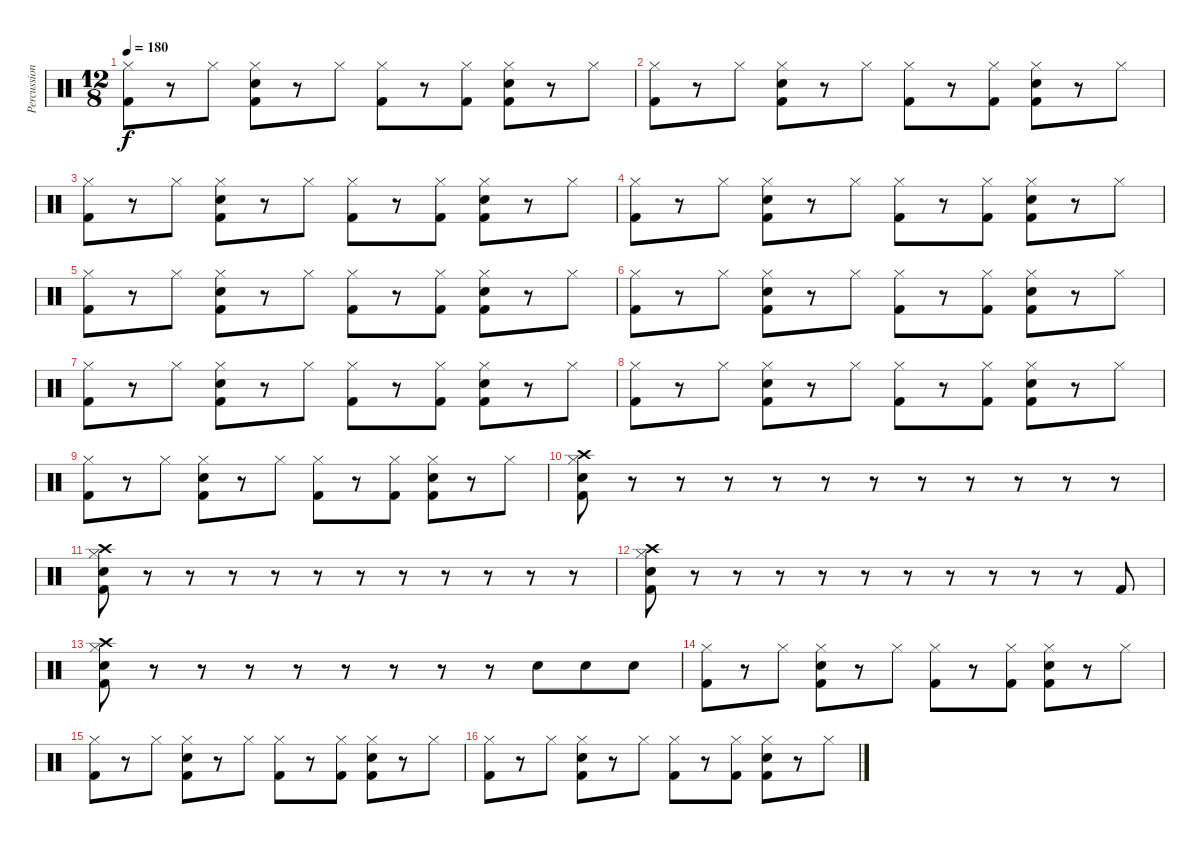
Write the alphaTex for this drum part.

\track ("Percussions" "Percussion") {instrument percussion}
\staff {score}
\articulation defaults
\ts (12 8)
\tempo 180
\clef neutral
\ks c
("Kick (hit) 2" "Hi-Hat (closed)").8{dy f} r.8 "Hi-Hat (closed)".8 ("Snare (hit) 2" "Kick (hit) 2" "Hi-Hat (closed)").8 r.8 "Hi-Hat (closed)".8 ("Kick (hit) 2" "Hi-Hat (closed)").8 r.8 ("Kick (hit) 2" "Hi-Hat (closed)").8 ("Snare (hit) 2" "Kick (hit) 2" "Hi-Hat (closed)").8 r.8 "Hi-Hat (closed)".8 |
("Kick (hit) 2" "Hi-Hat (closed)").8 r.8 "Hi-Hat (closed)".8 ("Snare (hit) 2" "Kick (hit) 2" "Hi-Hat (closed)").8 r.8 "Hi-Hat (closed)".8 ("Kick (hit) 2" "Hi-Hat (closed)").8 r.8 ("Kick (hit) 2" "Hi-Hat (closed)").8 ("Snare (hit) 2" "Kick (hit) 2" "Hi-Hat (closed)").8 r.8 "Hi-Hat (closed)".8 |
("Kick (hit) 2" "Hi-Hat (closed)").8 r.8 "Hi-Hat (closed)".8 ("Snare (hit) 2" "Kick (hit) 2" "Hi-Hat (closed)").8 r.8 "Hi-Hat (closed)".8 ("Kick (hit) 2" "Hi-Hat (closed)").8 r.8 ("Kick (hit) 2" "Hi-Hat (closed)").8 ("Snare (hit) 2" "Kick (hit) 2" "Hi-Hat (closed)").8 r.8 "Hi-Hat (closed)".8 |
("Kick (hit) 2" "Hi-Hat (closed)").8 r.8 "Hi-Hat (closed)".8 ("Snare (hit) 2" "Kick (hit) 2" "Hi-Hat (closed)").8 r.8 "Hi-Hat (closed)".8 ("Kick (hit) 2" "Hi-Hat (closed)").8 r.8 ("Kick (hit) 2" "Hi-Hat (closed)").8 ("Snare (hit) 2" "Kick (hit) 2" "Hi-Hat (closed)").8 r.8 "Hi-Hat (closed)".8 |
("Kick (hit) 2" "Hi-Hat (closed)").8 r.8 "Hi-Hat (closed)".8 ("Snare (hit) 2" "Kick (hit) 2" "Hi-Hat (closed)").8 r.8 "Hi-Hat (closed)".8 ("Kick (hit) 2" "Hi-Hat (closed)").8 r.8 ("Kick (hit) 2" "Hi-Hat (closed)").8 ("Snare (hit) 2" "Kick (hit) 2" "Hi-Hat (closed)").8 r.8 "Hi-Hat (closed)".8 |
("Kick (hit) 2" "Hi-Hat (closed)").8 r.8 "Hi-Hat (closed)".8 ("Snare (hit) 2" "Kick (hit) 2" "Hi-Hat (closed)").8 r.8 "Hi-Hat (closed)".8 ("Kick (hit) 2" "Hi-Hat (closed)").8 r.8 ("Kick (hit) 2" "Hi-Hat (closed)").8 ("Snare (hit) 2" "Kick (hit) 2" "Hi-Hat (closed)").8 r.8 "Hi-Hat (closed)".8 |
("Kick (hit) 2" "Hi-Hat (closed)").8 r.8 "Hi-Hat (closed)".8 ("Snare (hit) 2" "Kick (hit) 2" "Hi-Hat (closed)").8 r.8 "Hi-Hat (closed)".8 ("Kick (hit) 2" "Hi-Hat (closed)").8 r.8 ("Kick (hit) 2" "Hi-Hat (closed)").8 ("Snare (hit) 2" "Kick (hit) 2" "Hi-Hat (closed)").8 r.8 "Hi-Hat (closed)".8 |
("Kick (hit) 2" "Hi-Hat (closed)").8 r.8 "Hi-Hat (closed)".8 ("Snare (hit) 2" "Kick (hit) 2" "Hi-Hat (closed)").8 r.8 "Hi-Hat (closed)".8 ("Kick (hit) 2" "Hi-Hat (closed)").8 r.8 ("Kick (hit) 2" "Hi-Hat (closed)").8 ("Snare (hit) 2" "Kick (hit) 2" "Hi-Hat (closed)").8 r.8 "Hi-Hat (closed)".8 |
("Kick (hit) 2" "Hi-Hat (closed)").8 r.8 "Hi-Hat (closed)".8 ("Snare (hit) 2" "Kick (hit) 2" "Hi-Hat (closed)").8 r.8 "Hi-Hat (closed)".8 ("Kick (hit) 2" "Hi-Hat (closed)").8 r.8 ("Kick (hit) 2" "Hi-Hat (closed)").8 ("Snare (hit) 2" "Kick (hit) 2" "Hi-Hat (closed)").8 r.8 "Hi-Hat (closed)".8 |
("Snare (hit) 2" "Kick (hit) 2" "Hi-Hat (closed)" "Crash high (hit)").8 r.8 r.8 r.8 r.8 r.8 r.8 r.8 r.8 r.8 r.8 r.8 |
("Snare (hit) 2" "Kick (hit) 2" "Hi-Hat (closed)" "Crash high (hit)").8 r.8 r.8 r.8 r.8 r.8 r.8 r.8 r.8 r.8 r.8 r.8 |
("Snare (hit) 2" "Kick (hit) 2" "Hi-Hat (closed)" "Crash high (hit)").8 r.8 r.8 r.8 r.8 r.8 r.8 r.8 r.8 r.8 r.8 "Kick (hit) 2".8 |
("Snare (hit) 2" "Kick (hit) 2" "Hi-Hat (closed)" "Crash high (hit)").8 r.8 r.8 r.8 r.8 r.8 r.8 r.8 r.8 "Snare (hit) 2".8 "Snare (hit) 2".8 "Snare (hit) 2".8 |
("Kick (hit) 2" "Hi-Hat (closed)").8 r.8 "Hi-Hat (closed)".8 ("Snare (hit) 2" "Kick (hit) 2" "Hi-Hat (closed)").8 r.8 "Hi-Hat (closed)".8 ("Kick (hit) 2" "Hi-Hat (closed)").8 r.8 ("Kick (hit) 2" "Hi-Hat (closed)").8 ("Snare (hit) 2" "Kick (hit) 2" "Hi-Hat (closed)").8 r.8 "Hi-Hat (closed)".8 |
("Kick (hit) 2" "Hi-Hat (closed)").8 r.8 "Hi-Hat (closed)".8 ("Snare (hit) 2" "Kick (hit) 2" "Hi-Hat (closed)").8 r.8 "Hi-Hat (closed)".8 ("Kick (hit) 2" "Hi-Hat (closed)").8 r.8 ("Kick (hit) 2" "Hi-Hat (closed)").8 ("Snare (hit) 2" "Kick (hit) 2" "Hi-Hat (closed)").8 r.8 "Hi-Hat (closed)".8 |
("Kick (hit) 2" "Hi-Hat (closed)").8 r.8 "Hi-Hat (closed)".8 ("Snare (hit) 2" "Kick (hit) 2" "Hi-Hat (closed)").8 r.8 "Hi-Hat (closed)".8 ("Kick (hit) 2" "Hi-Hat (closed)").8 r.8 ("Kick (hit) 2" "Hi-Hat (closed)").8 ("Snare (hit) 2" "Kick (hit) 2" "Hi-Hat (closed)").8 r.8 "Hi-Hat (closed)".8
